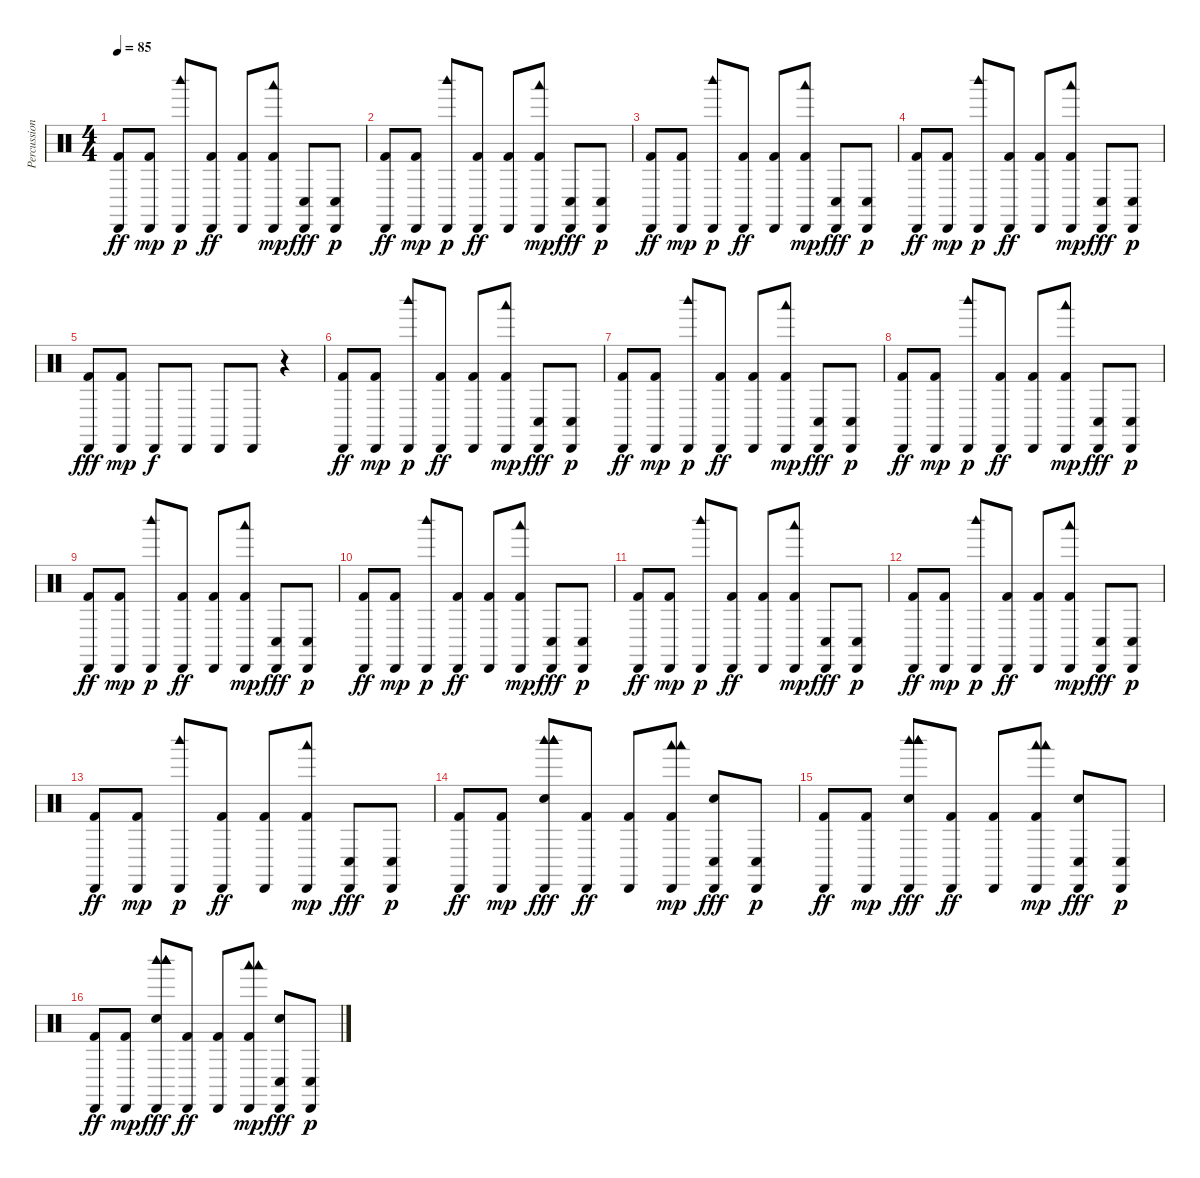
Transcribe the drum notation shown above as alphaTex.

\track ("Percussion" "Percussion") {instrument percussion}
\staff {score}
\articulation defaults
\ts (4 4)
\tempo 85
\clef neutral
\ks c
("Cabasa (hit)" "Kick (hit) 2").8{dy ff} ("Cabasa (hit)" "Kick (hit) 2").8{dy mp} ("Woodblock high (hit)" "Cabasa (hit)").8{dy p} ("Cabasa (hit)" "Kick (hit) 2").8{dy ff} ("Cabasa (hit)" "Kick (hit) 2").8 ("Woodblock low (hit)" "Cabasa (hit)" "Kick (hit) 2").8{dy mp} ("Conga low (hit)" "Cabasa (hit)").8{dy fff} ("Conga low (hit)" "Cabasa (hit)").8{dy p} |
("Cabasa (hit)" "Kick (hit) 2").8{dy ff} ("Cabasa (hit)" "Kick (hit) 2").8{dy mp} ("Woodblock high (hit)" "Cabasa (hit)").8{dy p} ("Cabasa (hit)" "Kick (hit) 2").8{dy ff} ("Cabasa (hit)" "Kick (hit) 2").8 ("Woodblock low (hit)" "Cabasa (hit)" "Kick (hit) 2").8{dy mp} ("Conga low (hit)" "Cabasa (hit)").8{dy fff} ("Conga low (hit)" "Cabasa (hit)").8{dy p} |
("Cabasa (hit)" "Kick (hit) 2").8{dy ff} ("Cabasa (hit)" "Kick (hit) 2").8{dy mp} ("Woodblock high (hit)" "Cabasa (hit)").8{dy p} ("Cabasa (hit)" "Kick (hit) 2").8{dy ff} ("Cabasa (hit)" "Kick (hit) 2").8 ("Woodblock low (hit)" "Cabasa (hit)" "Kick (hit) 2").8{dy mp} ("Conga low (hit)" "Cabasa (hit)").8{dy fff} ("Conga low (hit)" "Cabasa (hit)").8{dy p} |
("Cabasa (hit)" "Kick (hit) 2").8{dy ff} ("Cabasa (hit)" "Kick (hit) 2").8{dy mp} ("Woodblock high (hit)" "Cabasa (hit)").8{dy p} ("Cabasa (hit)" "Kick (hit) 2").8{dy ff} ("Cabasa (hit)" "Kick (hit) 2").8 ("Woodblock low (hit)" "Cabasa (hit)" "Kick (hit) 2").8{dy mp} ("Conga low (hit)" "Cabasa (hit)").8{dy fff} ("Conga low (hit)" "Cabasa (hit)").8{dy p} |
("Cabasa (hit)" "Kick (hit) 2").8{dy fff} ("Cabasa (hit)" "Kick (hit) 2").8{dy mp} "Cabasa (hit)".8{dy f} "Cabasa (hit)".8 "Cabasa (hit)".8 "Cabasa (hit)".8 r.4 |
("Cabasa (hit)" "Kick (hit) 2").8{dy ff} ("Cabasa (hit)" "Kick (hit) 2").8{dy mp} ("Woodblock high (hit)" "Cabasa (hit)").8{dy p} ("Cabasa (hit)" "Kick (hit) 2").8{dy ff} ("Cabasa (hit)" "Kick (hit) 2").8 ("Woodblock low (hit)" "Cabasa (hit)" "Kick (hit) 2").8{dy mp} ("Conga low (hit)" "Cabasa (hit)").8{dy fff} ("Conga low (hit)" "Cabasa (hit)").8{dy p} |
("Cabasa (hit)" "Kick (hit) 2").8{dy ff} ("Cabasa (hit)" "Kick (hit) 2").8{dy mp} ("Woodblock high (hit)" "Cabasa (hit)").8{dy p} ("Cabasa (hit)" "Kick (hit) 2").8{dy ff} ("Cabasa (hit)" "Kick (hit) 2").8 ("Woodblock low (hit)" "Cabasa (hit)" "Kick (hit) 2").8{dy mp} ("Conga low (hit)" "Cabasa (hit)").8{dy fff} ("Conga low (hit)" "Cabasa (hit)").8{dy p} |
("Cabasa (hit)" "Kick (hit) 2").8{dy ff} ("Cabasa (hit)" "Kick (hit) 2").8{dy mp} ("Woodblock high (hit)" "Cabasa (hit)").8{dy p} ("Cabasa (hit)" "Kick (hit) 2").8{dy ff} ("Cabasa (hit)" "Kick (hit) 2").8 ("Woodblock low (hit)" "Cabasa (hit)" "Kick (hit) 2").8{dy mp} ("Conga low (hit)" "Cabasa (hit)").8{dy fff} ("Conga low (hit)" "Cabasa (hit)").8{dy p} |
("Cabasa (hit)" "Kick (hit) 2").8{dy ff} ("Cabasa (hit)" "Kick (hit) 2").8{dy mp} ("Woodblock high (hit)" "Cabasa (hit)").8{dy p} ("Cabasa (hit)" "Kick (hit) 2").8{dy ff} ("Cabasa (hit)" "Kick (hit) 2").8 ("Woodblock low (hit)" "Cabasa (hit)" "Kick (hit) 2").8{dy mp} ("Conga low (hit)" "Cabasa (hit)").8{dy fff} ("Conga low (hit)" "Cabasa (hit)").8{dy p} |
("Cabasa (hit)" "Kick (hit) 2").8{dy ff} ("Cabasa (hit)" "Kick (hit) 2").8{dy mp} ("Woodblock high (hit)" "Cabasa (hit)").8{dy p} ("Cabasa (hit)" "Kick (hit) 2").8{dy ff} ("Cabasa (hit)" "Kick (hit) 2").8 ("Woodblock low (hit)" "Cabasa (hit)" "Kick (hit) 2").8{dy mp} ("Conga low (hit)" "Cabasa (hit)").8{dy fff} ("Conga low (hit)" "Cabasa (hit)").8{dy p} |
("Cabasa (hit)" "Kick (hit) 2").8{dy ff} ("Cabasa (hit)" "Kick (hit) 2").8{dy mp} ("Woodblock high (hit)" "Cabasa (hit)").8{dy p} ("Cabasa (hit)" "Kick (hit) 2").8{dy ff} ("Cabasa (hit)" "Kick (hit) 2").8 ("Woodblock low (hit)" "Cabasa (hit)" "Kick (hit) 2").8{dy mp} ("Conga low (hit)" "Cabasa (hit)").8{dy fff} ("Conga low (hit)" "Cabasa (hit)").8{dy p} |
("Cabasa (hit)" "Kick (hit) 2").8{dy ff} ("Cabasa (hit)" "Kick (hit) 2").8{dy mp} ("Woodblock high (hit)" "Cabasa (hit)").8{dy p} ("Cabasa (hit)" "Kick (hit) 2").8{dy ff} ("Cabasa (hit)" "Kick (hit) 2").8 ("Woodblock low (hit)" "Cabasa (hit)" "Kick (hit) 2").8{dy mp} ("Conga low (hit)" "Cabasa (hit)").8{dy fff} ("Conga low (hit)" "Cabasa (hit)").8{dy p} |
("Cabasa (hit)" "Kick (hit) 2").8{dy ff} ("Cabasa (hit)" "Kick (hit) 2").8{dy mp} ("Woodblock high (hit)" "Cabasa (hit)").8{dy p} ("Cabasa (hit)" "Kick (hit) 2").8{dy ff} ("Cabasa (hit)" "Kick (hit) 2").8 ("Woodblock low (hit)" "Cabasa (hit)" "Kick (hit) 2").8{dy mp} ("Conga low (hit)" "Cabasa (hit)").8{dy fff} ("Conga low (hit)" "Cabasa (hit)").8{dy p} |
("Cabasa (hit)" "Kick (hit) 2").8{dy ff volume 16} ("Cabasa (hit)" "Kick (hit) 2").8{dy mp} ("Woodblock high (hit)" "Woodblock high (hit)" "Hand Clap (hit)" "Cabasa (hit)" "Woodblock high (hit)" "Woodblock high (hit)").8{dy fff} ("Cabasa (hit)" "Kick (hit) 2").8{dy ff} ("Cabasa (hit)" "Kick (hit) 2").8 ("Woodblock low (hit)" "Cabasa (hit)" "Woodblock low (hit)" "Kick (hit) 2").8{dy mp} ("Conga low (hit)" "Hand Clap (hit)" "Cabasa (hit)").8{dy fff} ("Conga low (hit)" "Cabasa (hit)").8{dy p} |
("Cabasa (hit)" "Kick (hit) 2").8{dy ff} ("Cabasa (hit)" "Kick (hit) 2").8{dy mp} ("Woodblock high (hit)" "Woodblock high (hit)" "Hand Clap (hit)" "Cabasa (hit)" "Woodblock high (hit)" "Woodblock high (hit)").8{dy fff} ("Cabasa (hit)" "Kick (hit) 2").8{dy ff} ("Cabasa (hit)" "Kick (hit) 2").8 ("Woodblock low (hit)" "Cabasa (hit)" "Woodblock low (hit)" "Kick (hit) 2").8{dy mp} ("Conga low (hit)" "Hand Clap (hit)" "Cabasa (hit)").8{dy fff} ("Conga low (hit)" "Cabasa (hit)").8{dy p} |
("Cabasa (hit)" "Kick (hit) 2").8{dy ff} ("Cabasa (hit)" "Kick (hit) 2").8{dy mp} ("Woodblock high (hit)" "Woodblock high (hit)" "Hand Clap (hit)" "Cabasa (hit)" "Woodblock high (hit)" "Woodblock high (hit)").8{dy fff} ("Cabasa (hit)" "Kick (hit) 2").8{dy ff} ("Cabasa (hit)" "Kick (hit) 2").8 ("Woodblock low (hit)" "Cabasa (hit)" "Woodblock low (hit)" "Kick (hit) 2").8{dy mp} ("Conga low (hit)" "Hand Clap (hit)" "Cabasa (hit)").8{dy fff} ("Conga low (hit)" "Cabasa (hit)").8{dy p}
